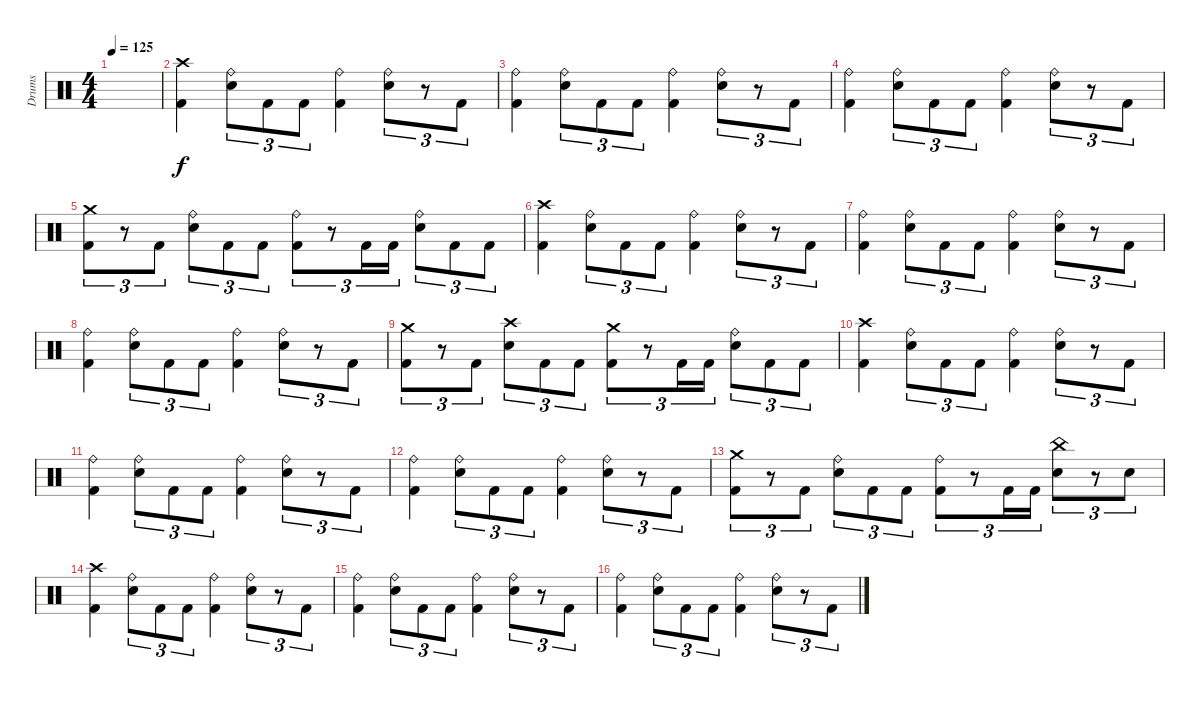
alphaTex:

\track ("Drums" "Drums") {instrument percussion}
\staff {score}
\articulation defaults
\ts (4 4)
\tempo 125
\clef neutral
\ks c
|
("Crash high (hit)" "Kick (hit) 2").4 ("Ride (bell)" "Electric Snare (hit)").8{tu (3 2)} "Kick (hit) 2".8{tu (3 2)} "Kick (hit) 2".8{tu (3 2)} ("Ride (bell)" "Kick (hit) 2").4 ("Ride (bell)" "Electric Snare (hit)").8{tu (3 2)} r.8{tu (3 2)} "Kick (hit) 2".8{tu (3 2)} |
("Ride (bell)" "Kick (hit) 2").4 ("Ride (bell)" "Electric Snare (hit)").8{tu (3 2)} "Kick (hit) 2".8{tu (3 2)} "Kick (hit) 2".8{tu (3 2)} ("Ride (bell)" "Kick (hit) 2").4 ("Ride (bell)" "Electric Snare (hit)").8{tu (3 2)} r.8{tu (3 2)} "Kick (hit) 2".8{tu (3 2)} |
("Ride (bell)" "Kick (hit) 2").4 ("Ride (bell)" "Electric Snare (hit)").8{tu (3 2)} "Kick (hit) 2".8{tu (3 2)} "Kick (hit) 2".8{tu (3 2)} ("Ride (bell)" "Kick (hit) 2").4 ("Ride (bell)" "Electric Snare (hit)").8{tu (3 2)} r.8{tu (3 2)} "Kick (hit) 2".8{tu (3 2)} |
("Crash medium (hit)" "Kick (hit) 2").8{tu (3 2)} r.8{tu (3 2)} "Kick (hit) 2".8{tu (3 2)} ("Ride (bell)" "Electric Snare (hit)").8{tu (3 2)} "Kick (hit) 2".8{tu (3 2)} "Kick (hit) 2".8{tu (3 2)} ("Ride (bell)" "Kick (hit) 2").8{tu (3 2)} r.8{tu (3 2)} "Kick (hit) 2".16{tu (3 2)} "Kick (hit) 2".16{tu (3 2)} ("Ride (bell)" "Electric Snare (hit)").8{tu (3 2)} "Kick (hit) 2".8{tu (3 2)} "Kick (hit) 2".8{tu (3 2)} |
("Crash high (hit)" "Kick (hit) 2").4 ("Ride (bell)" "Electric Snare (hit)").8{tu (3 2)} "Kick (hit) 2".8{tu (3 2)} "Kick (hit) 2".8{tu (3 2)} ("Ride (bell)" "Kick (hit) 2").4 ("Ride (bell)" "Electric Snare (hit)").8{tu (3 2)} r.8{tu (3 2)} "Kick (hit) 2".8{tu (3 2)} |
("Ride (bell)" "Kick (hit) 2").4 ("Ride (bell)" "Electric Snare (hit)").8{tu (3 2)} "Kick (hit) 2".8{tu (3 2)} "Kick (hit) 2".8{tu (3 2)} ("Ride (bell)" "Kick (hit) 2").4 ("Ride (bell)" "Electric Snare (hit)").8{tu (3 2)} r.8{tu (3 2)} "Kick (hit) 2".8{tu (3 2)} |
("Ride (bell)" "Kick (hit) 2").4 ("Ride (bell)" "Electric Snare (hit)").8{tu (3 2)} "Kick (hit) 2".8{tu (3 2)} "Kick (hit) 2".8{tu (3 2)} ("Ride (bell)" "Kick (hit) 2").4 ("Ride (bell)" "Electric Snare (hit)").8{tu (3 2)} r.8{tu (3 2)} "Kick (hit) 2".8{tu (3 2)} |
("Crash medium (hit)" "Kick (hit) 2").8{tu (3 2)} r.8{tu (3 2)} "Kick (hit) 2".8{tu (3 2)} ("Crash high (hit)" "Electric Snare (hit)").8{tu (3 2)} "Kick (hit) 2".8{tu (3 2)} "Kick (hit) 2".8{tu (3 2)} ("Crash medium (hit)" "Kick (hit) 2").8{tu (3 2)} r.8{tu (3 2)} "Kick (hit) 2".16{tu (3 2)} "Kick (hit) 2".16{tu (3 2)} ("Ride (bell)" "Electric Snare (hit)").8{tu (3 2)} "Kick (hit) 2".8{tu (3 2)} "Kick (hit) 2".8{tu (3 2)} |
("Crash high (hit)" "Kick (hit) 2").4 ("Ride (bell)" "Electric Snare (hit)").8{tu (3 2)} "Kick (hit) 2".8{tu (3 2)} "Kick (hit) 2".8{tu (3 2)} ("Ride (bell)" "Kick (hit) 2").4 ("Ride (bell)" "Electric Snare (hit)").8{tu (3 2)} r.8{tu (3 2)} "Kick (hit) 2".8{tu (3 2)} |
("Ride (bell)" "Kick (hit) 2").4 ("Ride (bell)" "Electric Snare (hit)").8{tu (3 2)} "Kick (hit) 2".8{tu (3 2)} "Kick (hit) 2".8{tu (3 2)} ("Ride (bell)" "Kick (hit) 2").4 ("Ride (bell)" "Electric Snare (hit)").8{tu (3 2)} r.8{tu (3 2)} "Kick (hit) 2".8{tu (3 2)} |
("Ride (bell)" "Kick (hit) 2").4 ("Ride (bell)" "Electric Snare (hit)").8{tu (3 2)} "Kick (hit) 2".8{tu (3 2)} "Kick (hit) 2".8{tu (3 2)} ("Ride (bell)" "Kick (hit) 2").4 ("Ride (bell)" "Electric Snare (hit)").8{tu (3 2)} r.8{tu (3 2)} "Kick (hit) 2".8{tu (3 2)} |
("Crash medium (hit)" "Kick (hit) 2").8{tu (3 2)} r.8{tu (3 2)} "Kick (hit) 2".8{tu (3 2)} ("Ride (bell)" "Electric Snare (hit)").8{tu (3 2)} "Kick (hit) 2".8{tu (3 2)} "Kick (hit) 2".8{tu (3 2)} ("Ride (bell)" "Kick (hit) 2").8{tu (3 2)} r.8{tu (3 2)} "Kick (hit) 2".16{tu (3 2)} "Kick (hit) 2".16{tu (3 2)} ("China (hit)" "Electric Snare (hit)").8{tu (3 2)} r.8{tu (3 2)} "Electric Snare (hit)".8{tu (3 2)} |
("Crash high (hit)" "Kick (hit) 2").4 ("Ride (bell)" "Electric Snare (hit)").8{tu (3 2)} "Kick (hit) 2".8{tu (3 2)} "Kick (hit) 2".8{tu (3 2)} ("Ride (bell)" "Kick (hit) 2").4 ("Ride (bell)" "Electric Snare (hit)").8{tu (3 2)} r.8{tu (3 2)} "Kick (hit) 2".8{tu (3 2)} |
("Ride (bell)" "Kick (hit) 2").4 ("Ride (bell)" "Electric Snare (hit)").8{tu (3 2)} "Kick (hit) 2".8{tu (3 2)} "Kick (hit) 2".8{tu (3 2)} ("Ride (bell)" "Kick (hit) 2").4 ("Ride (bell)" "Electric Snare (hit)").8{tu (3 2)} r.8{tu (3 2)} "Kick (hit) 2".8{tu (3 2)} |
("Ride (bell)" "Kick (hit) 2").4 ("Ride (bell)" "Electric Snare (hit)").8{tu (3 2)} "Kick (hit) 2".8{tu (3 2)} "Kick (hit) 2".8{tu (3 2)} ("Ride (bell)" "Kick (hit) 2").4 ("Ride (bell)" "Electric Snare (hit)").8{tu (3 2)} r.8{tu (3 2)} "Kick (hit) 2".8{tu (3 2)}
